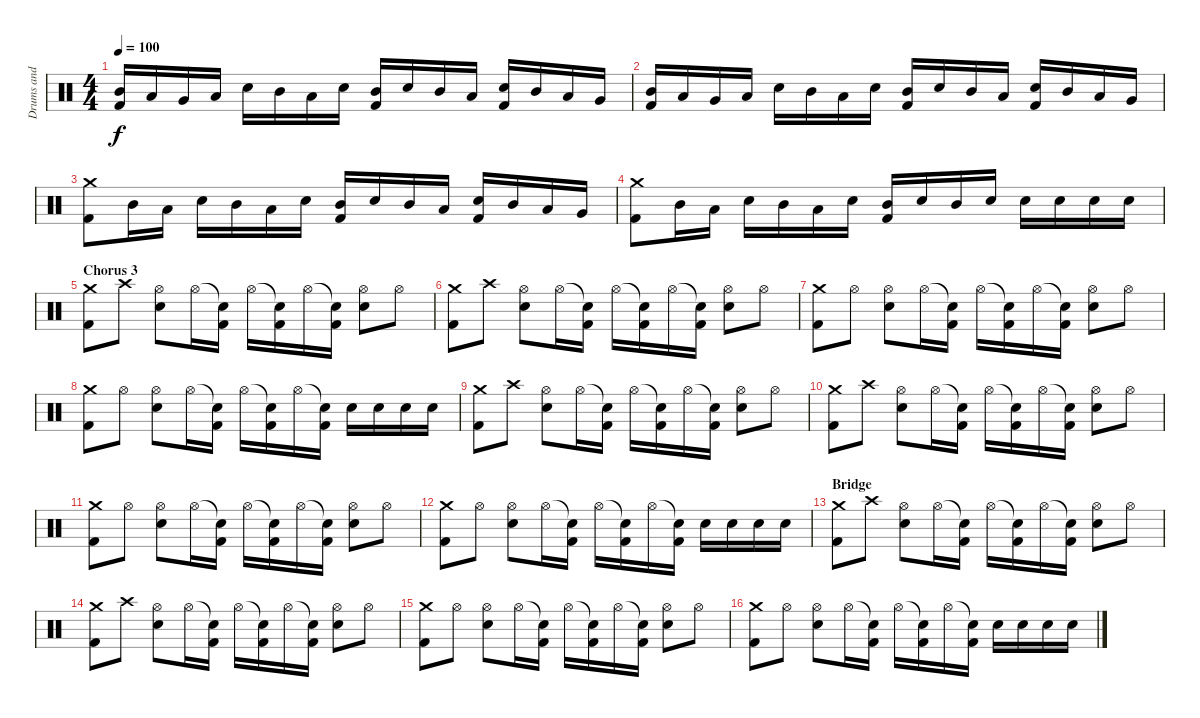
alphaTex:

\track ("Drums and Percussion" "Drums and ") {instrument percussion}
\staff {score}
\articulation defaults
\ts (4 4)
\tempo 100
\clef neutral
\ks c
("Mid Tom (hit)" "Kick (hit) 2").16{dy f} "Low Tom (hit)".16 "Very Low Tom (hit)".16 "Low Floor Tom (hit)".16 "Electric Snare (hit)".16 "Mid Tom (hit)".16 "Low Tom (hit)".16 "Electric Snare (hit)".16 ("Mid Tom (hit)" "Kick (hit) 2").16 "Electric Snare (hit)".16 "Mid Tom (hit)".16 "Low Tom (hit)".16 ("Electric Snare (hit)" "Kick (hit) 2").16 "Mid Tom (hit)".16 "Low Tom (hit)".16 "Very Low Tom (hit)".16 |
("Mid Tom (hit)" "Kick (hit) 2").16 "Low Tom (hit)".16 "Very Low Tom (hit)".16 "Low Floor Tom (hit)".16 "Electric Snare (hit)".16 "Mid Tom (hit)".16 "Low Tom (hit)".16 "Electric Snare (hit)".16 ("Mid Tom (hit)" "Kick (hit) 2").16 "Electric Snare (hit)".16 "Mid Tom (hit)".16 "Low Tom (hit)".16 ("Electric Snare (hit)" "Kick (hit) 2").16 "Mid Tom (hit)".16 "Low Tom (hit)".16 "Very Low Tom (hit)".16 |
("Crash medium (hit)" "Kick (hit) 2").8 "Mid Tom (hit)".16 "Low Tom (hit)".16 "Electric Snare (hit)".16 "Mid Tom (hit)".16 "Low Tom (hit)".16 "Electric Snare (hit)".16 ("Mid Tom (hit)" "Kick (hit) 2").16 "Electric Snare (hit)".16 "Mid Tom (hit)".16 "Low Tom (hit)".16 ("Electric Snare (hit)" "Kick (hit) 2").16 "Mid Tom (hit)".16 "Low Tom (hit)".16 "Very Low Tom (hit)".16 |
("Crash medium (hit)" "Kick (hit) 2").8 "Mid Tom (hit)".16 "Low Tom (hit)".16 "Electric Snare (hit)".16 "Mid Tom (hit)".16 "Low Tom (hit)".16 "Electric Snare (hit)".16 ("Mid Tom (hit)" "Kick (hit) 2").16 "Electric Snare (hit)".16 "Mid Tom (hit)".16 "Electric Snare (hit)".16 "Electric Snare (hit)".16 "Electric Snare (hit)".16 "Electric Snare (hit)".16 "Electric Snare (hit)".16 |
\section ("" "Chorus 3")
("Crash medium (hit)" "Kick (hit) 2").8 "Crash high (hit)".8 ("Hi-Hat (open)" "Electric Snare (hit)").8 "Hi-Hat (open)".16 ("Snare (hit)"{t} "Kick (hit) 2").16 "Hi-Hat (open)".16 ("Snare (hit)"{t} "Kick (hit) 2").16 "Hi-Hat (open)".16 ("Snare (hit)"{t} "Kick (hit) 2").16 ("Hi-Hat (open)" "Electric Snare (hit)").8 "Hi-Hat (open)".8 |
("Crash medium (hit)" "Kick (hit) 2").8 "Crash high (hit)".8 ("Hi-Hat (open)" "Electric Snare (hit)").8 "Hi-Hat (open)".16 ("Snare (hit)"{t} "Kick (hit) 2").16 "Hi-Hat (open)".16 ("Snare (hit)"{t} "Kick (hit) 2").16 "Hi-Hat (open)".16 ("Snare (hit)"{t} "Kick (hit) 2").16 ("Hi-Hat (open)" "Electric Snare (hit)").8 "Hi-Hat (open)".8 |
("Crash medium (hit)" "Kick (hit) 2").8 "Hi-Hat (open)".8 ("Hi-Hat (open)" "Electric Snare (hit)").8 "Hi-Hat (open)".16 ("Snare (hit)"{t} "Kick (hit) 2").16 "Hi-Hat (open)".16 ("Snare (hit)"{t} "Kick (hit) 2").16 "Hi-Hat (open)".16 ("Snare (hit)"{t} "Kick (hit) 2").16 ("Hi-Hat (open)" "Electric Snare (hit)").8 "Hi-Hat (open)".8 |
("Crash medium (hit)" "Kick (hit) 2").8 "Hi-Hat (open)".8 ("Hi-Hat (open)" "Electric Snare (hit)").8 "Hi-Hat (open)".16 ("Snare (hit)"{t} "Kick (hit) 2").16 "Hi-Hat (open)".16 ("Snare (hit)"{t} "Kick (hit) 2").16 "Hi-Hat (open)".16 ("Snare (hit)"{t} "Kick (hit) 2").16 "Electric Snare (hit)".16 "Electric Snare (hit)".16 "Electric Snare (hit)".16 "Electric Snare (hit)".16 |
("Crash medium (hit)" "Kick (hit) 2").8 "Crash high (hit)".8 ("Hi-Hat (open)" "Electric Snare (hit)").8 "Hi-Hat (open)".16 ("Snare (hit)"{t} "Kick (hit) 2").16 "Hi-Hat (open)".16 ("Snare (hit)"{t} "Kick (hit) 2").16 "Hi-Hat (open)".16 ("Snare (hit)"{t} "Kick (hit) 2").16 ("Hi-Hat (open)" "Electric Snare (hit)").8 "Hi-Hat (open)".8 |
("Crash medium (hit)" "Kick (hit) 2").8 "Crash high (hit)".8 ("Hi-Hat (open)" "Electric Snare (hit)").8 "Hi-Hat (open)".16 ("Snare (hit)"{t} "Kick (hit) 2").16 "Hi-Hat (open)".16 ("Snare (hit)"{t} "Kick (hit) 2").16 "Hi-Hat (open)".16 ("Snare (hit)"{t} "Kick (hit) 2").16 ("Hi-Hat (open)" "Electric Snare (hit)").8 "Hi-Hat (open)".8 |
("Crash medium (hit)" "Kick (hit) 2").8 "Hi-Hat (open)".8 ("Hi-Hat (open)" "Electric Snare (hit)").8 "Hi-Hat (open)".16 ("Snare (hit)"{t} "Kick (hit) 2").16 "Hi-Hat (open)".16 ("Snare (hit)"{t} "Kick (hit) 2").16 "Hi-Hat (open)".16 ("Snare (hit)"{t} "Kick (hit) 2").16 ("Hi-Hat (open)" "Electric Snare (hit)").8 "Hi-Hat (open)".8 |
("Crash medium (hit)" "Kick (hit) 2").8 "Hi-Hat (open)".8 ("Hi-Hat (open)" "Electric Snare (hit)").8 "Hi-Hat (open)".16 ("Snare (hit)"{t} "Kick (hit) 2").16 "Hi-Hat (open)".16 ("Snare (hit)"{t} "Kick (hit) 2").16 "Hi-Hat (open)".16 ("Snare (hit)"{t} "Kick (hit) 2").16 "Electric Snare (hit)".16 "Electric Snare (hit)".16 "Electric Snare (hit)".16 "Electric Snare (hit)".16 |
\section ("" "Bridge")
("Crash medium (hit)" "Kick (hit) 2").8 "Crash high (hit)".8 ("Hi-Hat (open)" "Electric Snare (hit)").8 "Hi-Hat (open)".16 ("Snare (hit)"{t} "Kick (hit) 2").16 "Hi-Hat (open)".16 ("Snare (hit)"{t} "Kick (hit) 2").16 "Hi-Hat (open)".16 ("Snare (hit)"{t} "Kick (hit) 2").16 ("Hi-Hat (open)" "Electric Snare (hit)").8 "Hi-Hat (open)".8 |
("Crash medium (hit)" "Kick (hit) 2").8 "Crash high (hit)".8 ("Hi-Hat (open)" "Electric Snare (hit)").8 "Hi-Hat (open)".16 ("Snare (hit)"{t} "Kick (hit) 2").16 "Hi-Hat (open)".16 ("Snare (hit)"{t} "Kick (hit) 2").16 "Hi-Hat (open)".16 ("Snare (hit)"{t} "Kick (hit) 2").16 ("Hi-Hat (open)" "Electric Snare (hit)").8 "Hi-Hat (open)".8 |
("Crash medium (hit)" "Kick (hit) 2").8 "Hi-Hat (open)".8 ("Hi-Hat (open)" "Electric Snare (hit)").8 "Hi-Hat (open)".16 ("Snare (hit)"{t} "Kick (hit) 2").16 "Hi-Hat (open)".16 ("Snare (hit)"{t} "Kick (hit) 2").16 "Hi-Hat (open)".16 ("Snare (hit)"{t} "Kick (hit) 2").16 ("Hi-Hat (open)" "Electric Snare (hit)").8 "Hi-Hat (open)".8 |
("Crash medium (hit)" "Kick (hit) 2").8 "Hi-Hat (open)".8 ("Hi-Hat (open)" "Electric Snare (hit)").8 "Hi-Hat (open)".16 ("Snare (hit)"{t} "Kick (hit) 2").16 "Hi-Hat (open)".16 ("Snare (hit)"{t} "Kick (hit) 2").16 "Hi-Hat (open)".16 ("Snare (hit)"{t} "Kick (hit) 2").16 "Electric Snare (hit)".16 "Electric Snare (hit)".16 "Electric Snare (hit)".16 "Electric Snare (hit)".16
